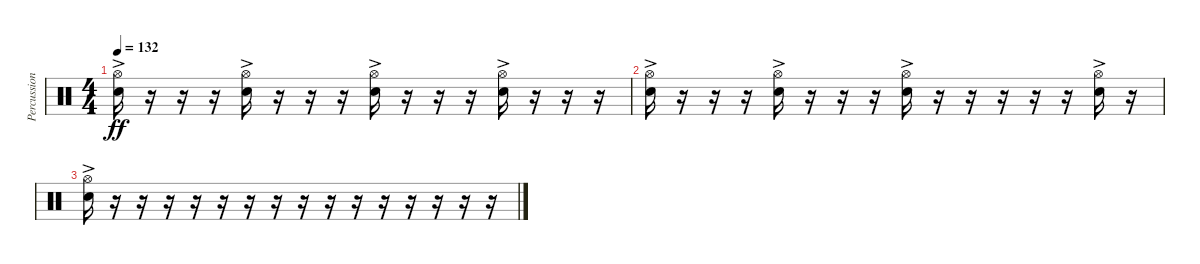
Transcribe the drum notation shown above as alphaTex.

\track ("Percussion" "Percussion") {instrument percussion bank 2}
\staff {score}
\articulation defaults
\ts (4 4)
\tempo 132
\clef neutral
\ks c
("Hi-Hat (open)"{ac} "Snare (hit) 2"{ac}).16{dy ff} r.16 r.16 r.16 ("Hi-Hat (open)"{ac} "Snare (hit) 2"{ac}).16 r.16 r.16 r.16 ("Hi-Hat (open)"{ac} "Snare (hit) 2"{ac}).16 r.16 r.16 r.16 ("Hi-Hat (open)"{ac} "Snare (hit) 2"{ac}).16 r.16 r.16 r.16 |
("Hi-Hat (open)"{ac} "Snare (hit) 2"{ac}).16 r.16 r.16 r.16 ("Hi-Hat (open)"{ac} "Snare (hit) 2"{ac}).16 r.16 r.16 r.16 ("Hi-Hat (open)"{ac} "Snare (hit) 2"{ac}).16 r.16 r.16 r.16 r.16 r.16 ("Hi-Hat (open)"{ac} "Snare (hit) 2"{ac}).16 r.16 |
("Hi-Hat (open)"{ac} "Snare (hit) 2"{ac}).16 r.16 r.16 r.16 r.16 r.16 r.16 r.16 r.16 r.16 r.16 r.16 r.16 r.16 r.16 r.16
